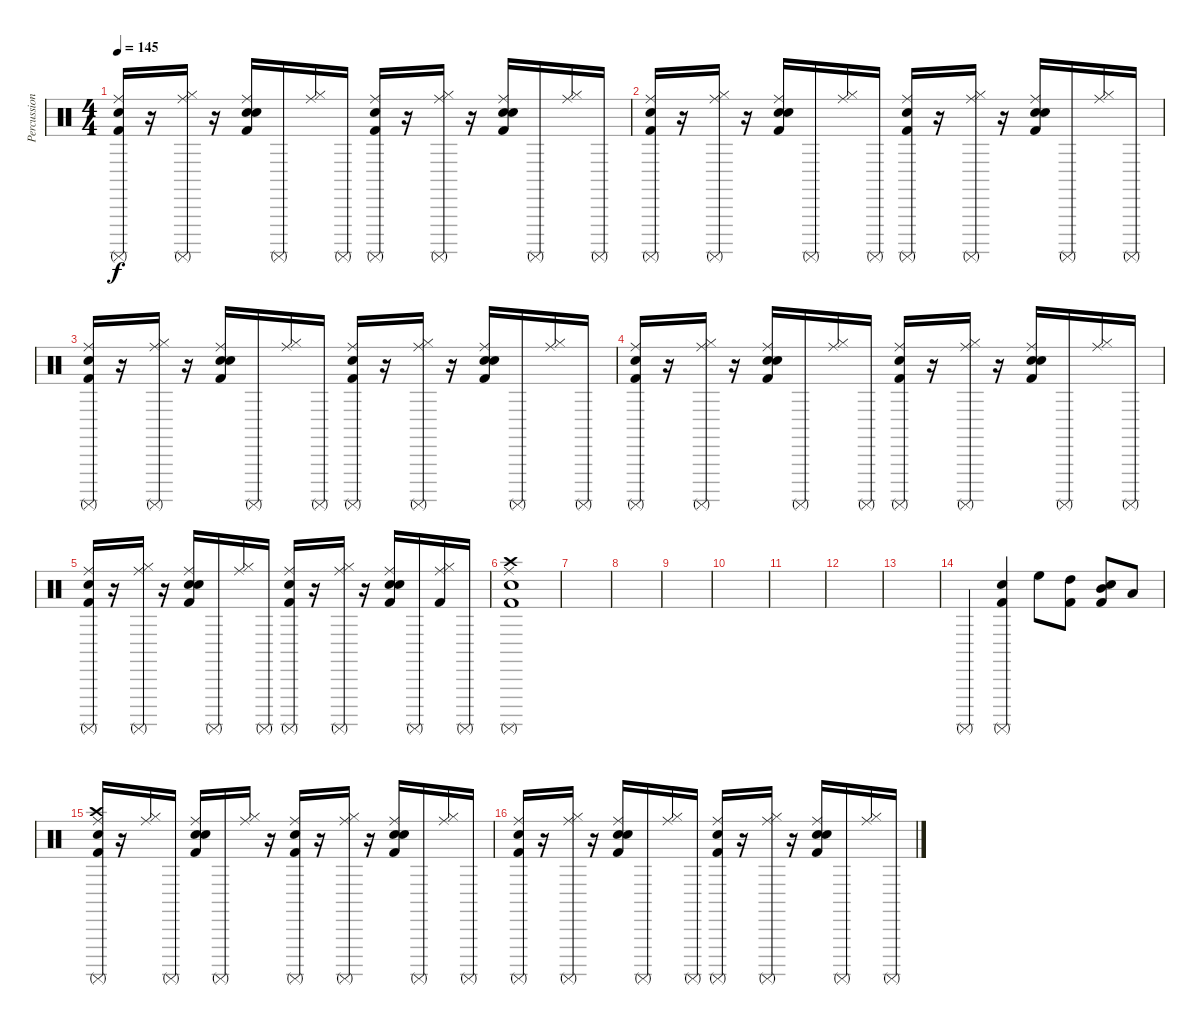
\track ("Percussions" "Percussion") {instrument percussion}
\staff {score}
\articulation defaults
\ts (4 4)
\tempo 145
\clef neutral
\ks c
("Kick (hit) 2" "Snare (hit) 2" "Surdo (mute)" "Ride (middle)").16{dy f} r.16 ("Hi-Hat (closed)" "Surdo (mute)" "Ride (middle)").16 r.16 ("Kick (hit) 2" "Electric Snare (hit)" "Hand Clap (hit)" "Ride (middle)").16 "Surdo (mute)".16 ("Hi-Hat (closed)" "Ride (middle)").16 "Surdo (mute)".16 ("Kick (hit) 2" "Snare (hit) 2" "Surdo (mute)" "Ride (middle)").16 r.16 ("Hi-Hat (closed)" "Surdo (mute)" "Ride (middle)").16 r.16 ("Kick (hit) 2" "Electric Snare (hit)" "Hand Clap (hit)" "Ride (middle)").16 "Surdo (mute)".16 ("Hi-Hat (closed)" "Ride (middle)").16 "Surdo (mute)".16 |
("Kick (hit) 2" "Snare (hit) 2" "Surdo (mute)" "Ride (middle)").16 r.16 ("Hi-Hat (closed)" "Surdo (mute)" "Ride (middle)").16 r.16 ("Kick (hit) 2" "Electric Snare (hit)" "Hand Clap (hit)" "Ride (middle)").16 "Surdo (mute)".16 ("Hi-Hat (closed)" "Ride (middle)").16 "Surdo (mute)".16 ("Kick (hit) 2" "Snare (hit) 2" "Surdo (mute)" "Ride (middle)").16 r.16 ("Hi-Hat (closed)" "Surdo (mute)" "Ride (middle)").16 r.16 ("Kick (hit) 2" "Electric Snare (hit)" "Hand Clap (hit)" "Ride (middle)").16 "Surdo (mute)".16 ("Hi-Hat (closed)" "Ride (middle)").16 "Surdo (mute)".16 |
("Kick (hit) 2" "Snare (hit) 2" "Surdo (mute)" "Ride (middle)").16 r.16 ("Hi-Hat (closed)" "Surdo (mute)" "Ride (middle)").16 r.16 ("Kick (hit) 2" "Electric Snare (hit)" "Hand Clap (hit)" "Ride (middle)").16 "Surdo (mute)".16 ("Hi-Hat (closed)" "Ride (middle)").16 "Surdo (mute)".16 ("Kick (hit) 2" "Snare (hit) 2" "Surdo (mute)" "Ride (middle)").16 r.16 ("Hi-Hat (closed)" "Surdo (mute)" "Ride (middle)").16 r.16 ("Kick (hit) 2" "Electric Snare (hit)" "Hand Clap (hit)" "Ride (middle)").16 "Surdo (mute)".16 ("Hi-Hat (closed)" "Ride (middle)").16 "Surdo (mute)".16 |
("Kick (hit) 2" "Snare (hit) 2" "Surdo (mute)" "Ride (middle)").16 r.16 ("Hi-Hat (closed)" "Surdo (mute)" "Ride (middle)").16 r.16 ("Kick (hit) 2" "Electric Snare (hit)" "Hand Clap (hit)" "Ride (middle)").16 "Surdo (mute)".16 ("Hi-Hat (closed)" "Ride (middle)").16 "Surdo (mute)".16 ("Kick (hit) 2" "Snare (hit) 2" "Surdo (mute)" "Ride (middle)").16 r.16 ("Hi-Hat (closed)" "Surdo (mute)" "Ride (middle)").16 r.16 ("Kick (hit) 2" "Electric Snare (hit)" "Hand Clap (hit)" "Ride (middle)").16 "Surdo (mute)".16 ("Hi-Hat (closed)" "Ride (middle)").16 "Surdo (mute)".16 |
("Kick (hit) 2" "Snare (hit) 2" "Surdo (mute)" "Ride (middle)").16 r.16 ("Hi-Hat (closed)" "Surdo (mute)" "Ride (middle)").16 r.16 ("Kick (hit) 2" "Snare (hit) 2" "Hand Clap (hit)" "Ride (middle)").16 "Surdo (mute)".16 ("Hi-Hat (closed)" "Ride (middle)").16 "Surdo (mute)".16 ("Kick (hit) 2" "Snare (hit) 2" "Surdo (mute)" "Ride (middle)").16 r.16 ("Hi-Hat (closed)" "Surdo (mute)" "Ride (middle)").16 r.16 ("Kick (hit) 2" "Snare (hit) 2" "Hand Clap (hit)" "Ride (middle)").16 "Surdo (mute)".16 ("Hi-Hat (closed)" "Kick (hit) 2" "Ride (middle)").16 "Surdo (mute)".16 |
("Kick (hit) 2" "Snare (hit) 2" "Surdo (mute)" "Crash high (hit)" "Ride (middle)").1 |
|
|
|
|
|
|
|
"Surdo (mute)".4 ("Kick (hit) 2" "Snare (hit) 2" "Surdo (mute)").4 "High Floor Tom (hit)".8 ("Kick (hit) 2" "High Tom (hit)").8 ("Kick (hit) 2" "Snare (hit) 2" "Mid Tom (hit)").8 "Low Tom (hit)".8 |
("Kick (hit) 2" "Snare (hit) 2" "Surdo (mute)" "Crash high (hit)" "Ride (middle)").16 r.16 ("Hi-Hat (closed)" "Ride (middle)").16 "Surdo (mute)".16 ("Kick (hit) 2" "Snare (hit) 2" "Hand Clap (hit)" "Ride (middle)").16 "Surdo (mute)".16 ("Hi-Hat (closed)" "Ride (middle)").16 r.16 ("Kick (hit) 2" "Snare (hit) 2" "Surdo (mute)" "Ride (middle)").16 r.16 ("Hi-Hat (closed)" "Surdo (mute)" "Ride (middle)").16 r.16 ("Kick (hit) 2" "Snare (hit) 2" "Hand Clap (hit)" "Ride (middle)").16 "Surdo (mute)".16 ("Hi-Hat (closed)" "Ride (middle)").16 "Surdo (mute)".16 |
("Kick (hit) 2" "Snare (hit) 2" "Surdo (mute)" "Ride (middle)").16 r.16 ("Hi-Hat (closed)" "Surdo (mute)" "Ride (middle)").16 r.16 ("Kick (hit) 2" "Snare (hit) 2" "Hand Clap (hit)" "Ride (middle)").16 "Surdo (mute)".16 ("Hi-Hat (closed)" "Ride (middle)").16 "Surdo (mute)".16 ("Kick (hit) 2" "Snare (hit) 2" "Surdo (mute)" "Ride (middle)").16 r.16 ("Hi-Hat (closed)" "Surdo (mute)" "Ride (middle)").16 r.16 ("Kick (hit) 2" "Snare (hit) 2" "Hand Clap (hit)" "Ride (middle)").16 "Surdo (mute)".16 ("Hi-Hat (closed)" "Ride (middle)").16 "Surdo (mute)".16
